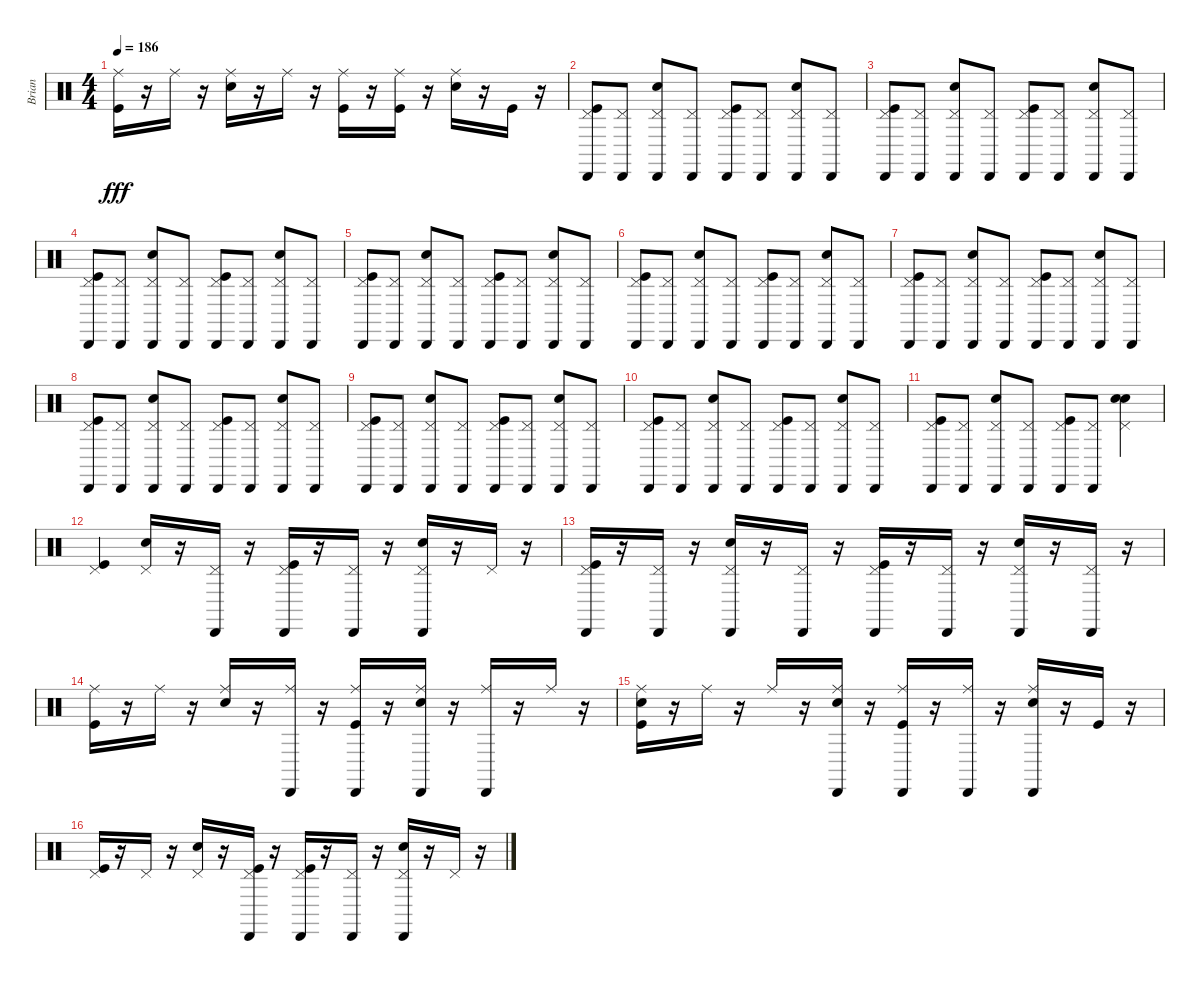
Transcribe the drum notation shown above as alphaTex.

\track ("Brian" "Brian") {instrument percussion}
\staff {score}
\articulation defaults
\ts (4 4)
\tempo 186
\clef neutral
\ks c
("Ride (middle)" "Kick (hit)").16{dy fff} r.16 "Ride (middle)".16 r.16 ("Ride (middle)" "Snare (hit) 2").16 r.16 "Ride (middle)".16 r.16 ("Ride (middle)" "Kick (hit)").16 r.16 ("Ride (middle)" "Kick (hit)").16 r.16 ("Ride (middle)" "Snare (hit) 2").16 r.16 "Kick (hit)".16 r.16 |
("Cabasa (hit)" "Pedal Hi-Hat (hit)" "Kick (hit)").8 ("Cabasa (hit)" "Pedal Hi-Hat (hit)").8 ("Cabasa (hit)" "Pedal Hi-Hat (hit)" "Snare (hit) 2").8 ("Cabasa (hit)" "Pedal Hi-Hat (hit)").8 ("Cabasa (hit)" "Pedal Hi-Hat (hit)" "Kick (hit)").8 ("Cabasa (hit)" "Pedal Hi-Hat (hit)").8 ("Cabasa (hit)" "Pedal Hi-Hat (hit)" "Snare (hit) 2").8 ("Cabasa (hit)" "Pedal Hi-Hat (hit)").8 |
("Cabasa (hit)" "Pedal Hi-Hat (hit)" "Kick (hit)").8 ("Cabasa (hit)" "Pedal Hi-Hat (hit)").8 ("Cabasa (hit)" "Pedal Hi-Hat (hit)" "Snare (hit) 2").8 ("Cabasa (hit)" "Pedal Hi-Hat (hit)").8 ("Cabasa (hit)" "Pedal Hi-Hat (hit)" "Kick (hit)").8 ("Cabasa (hit)" "Pedal Hi-Hat (hit)").8 ("Cabasa (hit)" "Pedal Hi-Hat (hit)" "Snare (hit) 2").8 ("Cabasa (hit)" "Pedal Hi-Hat (hit)").8 |
("Cabasa (hit)" "Pedal Hi-Hat (hit)" "Kick (hit)").8 ("Cabasa (hit)" "Pedal Hi-Hat (hit)").8 ("Cabasa (hit)" "Pedal Hi-Hat (hit)" "Snare (hit) 2").8 ("Cabasa (hit)" "Pedal Hi-Hat (hit)").8 ("Cabasa (hit)" "Pedal Hi-Hat (hit)" "Kick (hit)").8 ("Cabasa (hit)" "Pedal Hi-Hat (hit)").8 ("Cabasa (hit)" "Pedal Hi-Hat (hit)" "Snare (hit) 2").8 ("Cabasa (hit)" "Pedal Hi-Hat (hit)").8 |
("Cabasa (hit)" "Pedal Hi-Hat (hit)" "Kick (hit)").8 ("Cabasa (hit)" "Pedal Hi-Hat (hit)").8 ("Cabasa (hit)" "Pedal Hi-Hat (hit)" "Snare (hit) 2").8 ("Cabasa (hit)" "Pedal Hi-Hat (hit)").8 ("Cabasa (hit)" "Pedal Hi-Hat (hit)" "Kick (hit)").8 ("Cabasa (hit)" "Pedal Hi-Hat (hit)").8 ("Cabasa (hit)" "Pedal Hi-Hat (hit)" "Snare (hit) 2").8 ("Cabasa (hit)" "Pedal Hi-Hat (hit)").8 |
("Cabasa (hit)" "Pedal Hi-Hat (hit)" "Kick (hit)").8 ("Cabasa (hit)" "Pedal Hi-Hat (hit)").8 ("Cabasa (hit)" "Pedal Hi-Hat (hit)" "Snare (hit) 2").8 ("Cabasa (hit)" "Pedal Hi-Hat (hit)").8 ("Cabasa (hit)" "Pedal Hi-Hat (hit)" "Kick (hit)").8 ("Cabasa (hit)" "Pedal Hi-Hat (hit)").8 ("Cabasa (hit)" "Pedal Hi-Hat (hit)" "Snare (hit) 2").8 ("Cabasa (hit)" "Pedal Hi-Hat (hit)").8 |
("Cabasa (hit)" "Pedal Hi-Hat (hit)" "Kick (hit)").8 ("Cabasa (hit)" "Pedal Hi-Hat (hit)").8 ("Cabasa (hit)" "Pedal Hi-Hat (hit)" "Snare (hit) 2").8 ("Cabasa (hit)" "Pedal Hi-Hat (hit)").8 ("Cabasa (hit)" "Pedal Hi-Hat (hit)" "Kick (hit)").8 ("Cabasa (hit)" "Pedal Hi-Hat (hit)").8 ("Cabasa (hit)" "Pedal Hi-Hat (hit)" "Snare (hit) 2").8 ("Cabasa (hit)" "Pedal Hi-Hat (hit)").8 |
("Cabasa (hit)" "Pedal Hi-Hat (hit)" "Kick (hit)").8 ("Cabasa (hit)" "Pedal Hi-Hat (hit)").8 ("Cabasa (hit)" "Pedal Hi-Hat (hit)" "Snare (hit) 2").8 ("Cabasa (hit)" "Pedal Hi-Hat (hit)").8 ("Cabasa (hit)" "Pedal Hi-Hat (hit)" "Kick (hit)").8 ("Cabasa (hit)" "Pedal Hi-Hat (hit)").8 ("Cabasa (hit)" "Pedal Hi-Hat (hit)" "Snare (hit) 2").8 ("Cabasa (hit)" "Pedal Hi-Hat (hit)").8 |
("Cabasa (hit)" "Pedal Hi-Hat (hit)" "Kick (hit)").8 ("Cabasa (hit)" "Pedal Hi-Hat (hit)").8 ("Cabasa (hit)" "Pedal Hi-Hat (hit)" "Snare (hit) 2").8 ("Cabasa (hit)" "Pedal Hi-Hat (hit)").8 ("Cabasa (hit)" "Pedal Hi-Hat (hit)" "Kick (hit)").8 ("Cabasa (hit)" "Pedal Hi-Hat (hit)").8 ("Cabasa (hit)" "Pedal Hi-Hat (hit)" "Snare (hit) 2").8 ("Cabasa (hit)" "Pedal Hi-Hat (hit)").8 |
("Cabasa (hit)" "Pedal Hi-Hat (hit)" "Kick (hit)").8 ("Cabasa (hit)" "Pedal Hi-Hat (hit)").8 ("Cabasa (hit)" "Pedal Hi-Hat (hit)" "Snare (hit) 2").8 ("Cabasa (hit)" "Pedal Hi-Hat (hit)").8 ("Cabasa (hit)" "Pedal Hi-Hat (hit)" "Kick (hit)").8 ("Cabasa (hit)" "Pedal Hi-Hat (hit)").8 ("Cabasa (hit)" "Pedal Hi-Hat (hit)" "Snare (hit) 2").8 ("Cabasa (hit)" "Pedal Hi-Hat (hit)").8 |
("Cabasa (hit)" "Pedal Hi-Hat (hit)" "Kick (hit)").8 ("Cabasa (hit)" "Pedal Hi-Hat (hit)").8 ("Cabasa (hit)" "Pedal Hi-Hat (hit)" "Snare (hit) 2").8 ("Cabasa (hit)" "Pedal Hi-Hat (hit)").8 ("Cabasa (hit)" "Pedal Hi-Hat (hit)" "Kick (hit)").8 ("Cabasa (hit)" "Pedal Hi-Hat (hit)").8 ("Pedal Hi-Hat (hit)" "Electric Snare (hit)" "Snare (hit) 2").4 |
("Pedal Hi-Hat (hit)" "Kick (hit)").4 ("Pedal Hi-Hat (hit)" "Snare (hit) 2").16 r.16 ("Cabasa (hit)" "Pedal Hi-Hat (hit)").16 r.16 ("Cabasa (hit)" "Pedal Hi-Hat (hit)" "Kick (hit)").16 r.16 ("Cabasa (hit)" "Pedal Hi-Hat (hit)").16 r.16 ("Cabasa (hit)" "Pedal Hi-Hat (hit)" "Snare (hit) 2").16 r.16 "Pedal Hi-Hat (hit)".16 r.16 |
("Cabasa (hit)" "Pedal Hi-Hat (hit)" "Kick (hit)").16 r.16 ("Cabasa (hit)" "Pedal Hi-Hat (hit)").16 r.16 ("Cabasa (hit)" "Pedal Hi-Hat (hit)" "Snare (hit) 2").16 r.16 ("Cabasa (hit)" "Pedal Hi-Hat (hit)").16 r.16 ("Cabasa (hit)" "Pedal Hi-Hat (hit)" "Kick (hit)").16 r.16 ("Cabasa (hit)" "Pedal Hi-Hat (hit)").16 r.16 ("Cabasa (hit)" "Pedal Hi-Hat (hit)" "Snare (hit) 2").16 r.16 ("Cabasa (hit)" "Pedal Hi-Hat (hit)").16 r.16 |
("Ride (middle)" "Kick (hit)").16 r.16 "Ride (middle)".16 r.16 ("Ride (middle)" "Snare (hit) 2").16 r.16 ("Cabasa (hit)" "Ride (middle)").16 r.16 ("Cabasa (hit)" "Ride (middle)" "Kick (hit)").16 r.16 ("Cabasa (hit)" "Ride (middle)" "Snare (hit) 2").16 r.16 ("Cabasa (hit)" "Ride (middle)").16 r.16 "Ride (middle)".16 r.16 |
("Ride (middle)" "Snare (hit) 2" "Kick (hit)").16 r.16 "Ride (middle)".16 r.16 "Ride (middle)".16 r.16 ("Cabasa (hit)" "Ride (middle)" "Snare (hit) 2").16 r.16 ("Cabasa (hit)" "Ride (middle)" "Kick (hit)").16 r.16 ("Cabasa (hit)" "Ride (middle)").16 r.16 ("Cabasa (hit)" "Ride (middle)" "Snare (hit) 2").16 r.16 "Kick (hit)".16 r.16 |
("Pedal Hi-Hat (hit)" "Kick (hit)").16 r.16 "Pedal Hi-Hat (hit)".16 r.16 ("Pedal Hi-Hat (hit)" "Snare (hit) 2").16 r.16 ("Cabasa (hit)" "Pedal Hi-Hat (hit)" "Kick (hit)").16 r.16 ("Cabasa (hit)" "Pedal Hi-Hat (hit)" "Kick (hit)").16 r.16 ("Cabasa (hit)" "Pedal Hi-Hat (hit)").16 r.16 ("Cabasa (hit)" "Pedal Hi-Hat (hit)" "Snare (hit) 2").16 r.16 "Pedal Hi-Hat (hit)".16 r.16
